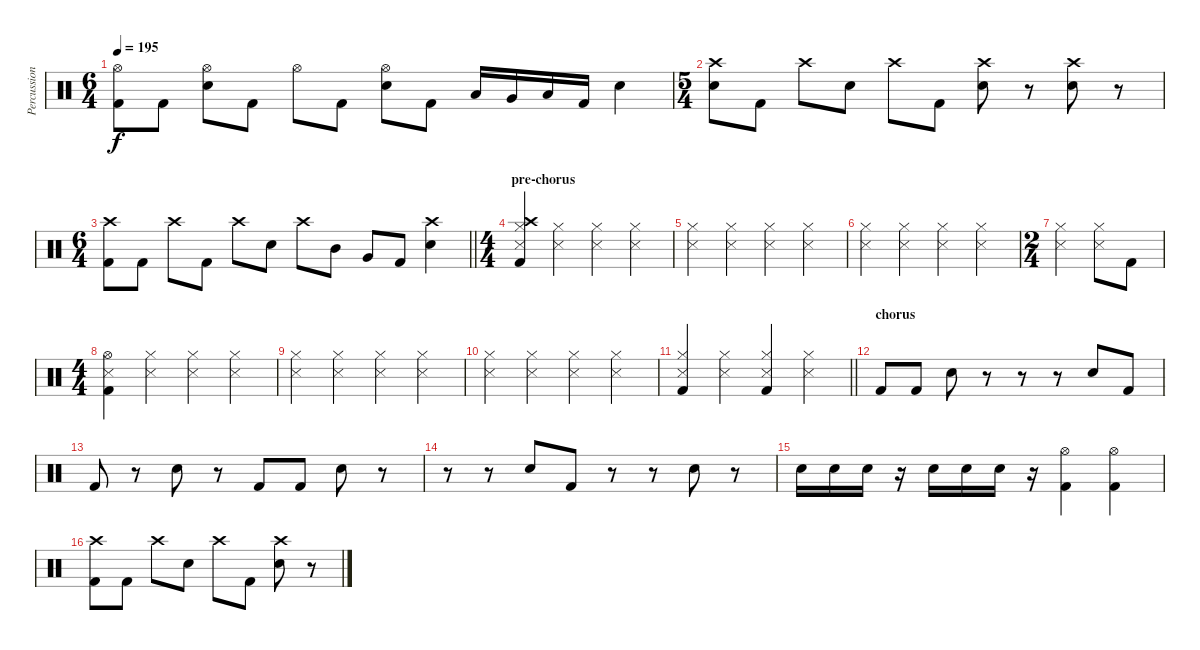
\track ("Percussion" "Percussion") {instrument percussion}
\staff {score}
\articulation defaults
\ts (6 4)
\tempo 195
\clef neutral
\ks c
("Hi-Hat (open)" "Kick (hit) 2").8{dy f} "Kick (hit) 2".8 ("Hi-Hat (open)" "Snare (hit) 2").8 "Kick (hit) 2".8 "Hi-Hat (open)".8 "Kick (hit) 2".8 ("Hi-Hat (open)" "Snare (hit) 2").8 "Kick (hit) 2".8 "Low Tom (hit)".16 "Very Low Tom (hit)".16 "Low Floor Tom (hit)".16 "Kick (hit) 2".16 "Snare (hit) 2".4 |
\ts (5 4)
("Crash high (hit)" "Snare (hit) 2").8 "Kick (hit) 2".8 "Crash high (hit)".8 "Snare (hit) 2".8 "Crash high (hit)".8 "Kick (hit) 2".8 ("Crash high (hit)" "Snare (hit) 2").8 r.8 ("Crash high (hit)" "Snare (hit) 2").8 r.8 |
\ts (6 4)
\barLineRight lightlight
("Crash high (hit)" "Kick (hit) 2").8 "Kick (hit) 2".8 "Crash high (hit)".8 "Kick (hit) 2".8 "Crash high (hit)".8 "Snare (hit) 2".8 "Crash high (hit)".8 "Mid Tom (hit)".8 "Very Low Tom (hit)".8 "Kick (hit) 2".8 ("Crash high (hit)" "Snare (hit) 2").4 |
\ts (4 4)
\section ("" "pre-chorus")
("Crash high (hit)" "Hi-Hat (closed)" "Snare (side stick) 3" "Kick (hit) 2").4 ("Hi-Hat (closed)" "Snare (side stick) 3").4 ("Hi-Hat (closed)" "Snare (side stick) 3").4 ("Hi-Hat (closed)" "Snare (side stick) 3").4 |
("Hi-Hat (closed)" "Snare (side stick) 3").4 ("Hi-Hat (closed)" "Snare (side stick) 3").4 ("Hi-Hat (closed)" "Snare (side stick) 3").4 ("Hi-Hat (closed)" "Snare (side stick) 3").4 |
("Hi-Hat (closed)" "Snare (side stick) 3").4 ("Hi-Hat (closed)" "Snare (side stick) 3").4 ("Hi-Hat (closed)" "Snare (side stick) 3").4 ("Hi-Hat (closed)" "Snare (side stick) 3").4 |
\ts (2 4)
("Hi-Hat (closed)" "Snare (side stick) 3").4 ("Hi-Hat (closed)" "Snare (side stick) 3").8 "Kick (hit) 2".8 |
\ts (4 4)
("Hi-Hat (open)" "Snare (side stick) 3" "Kick (hit) 2").4 ("Hi-Hat (closed)" "Snare (side stick) 3").4 ("Hi-Hat (closed)" "Snare (side stick) 3").4 ("Hi-Hat (closed)" "Snare (side stick) 3").4 |
("Hi-Hat (closed)" "Snare (side stick) 3").4 ("Hi-Hat (closed)" "Snare (side stick) 3").4 ("Hi-Hat (closed)" "Snare (side stick) 3").4 ("Hi-Hat (closed)" "Snare (side stick) 3").4 |
("Hi-Hat (closed)" "Snare (side stick) 3").4 ("Hi-Hat (closed)" "Snare (side stick) 3").4 ("Hi-Hat (closed)" "Snare (side stick) 3").4 ("Hi-Hat (closed)" "Snare (side stick) 3").4 |
\barLineRight lightlight
("Hi-Hat (closed)" "Snare (side stick) 3" "Kick (hit) 2").4 ("Hi-Hat (closed)" "Snare (side stick) 3").4 ("Hi-Hat (closed)" "Snare (side stick) 3" "Kick (hit) 2").4 ("Hi-Hat (closed)" "Snare (side stick) 3").4 |
\section ("" "chorus")
"Kick (hit) 2".8 "Kick (hit) 2".8 "Snare (hit) 2".8 r.8 r.8 r.8 "Snare (hit) 2".8 "Kick (hit) 2".8 |
"Kick (hit) 2".8 r.8 "Snare (hit) 2".8 r.8 "Kick (hit) 2".8 "Kick (hit) 2".8 "Snare (hit) 2".8 r.8 |
r.8 r.8 "Snare (hit) 2".8 "Kick (hit) 2".8 r.8 r.8 "Snare (hit) 2".8 r.8 |
"Snare (hit) 2".16 "Snare (hit) 2".16 "Snare (hit) 2".16 r.16 "Snare (hit) 2".16 "Snare (hit) 2".16 "Snare (hit) 2".16 r.16 ("Hi-Hat (open)" "Kick (hit) 2").4 ("Hi-Hat (open)" "Kick (hit) 2").4 |
("Crash high (hit)" "Kick (hit) 2").8 "Kick (hit) 2".8 "Crash high (hit)".8 "Snare (hit) 2".8 "Crash high (hit)".8 "Kick (hit) 2".8 ("Crash high (hit)" "Snare (hit) 2").8 r.8
